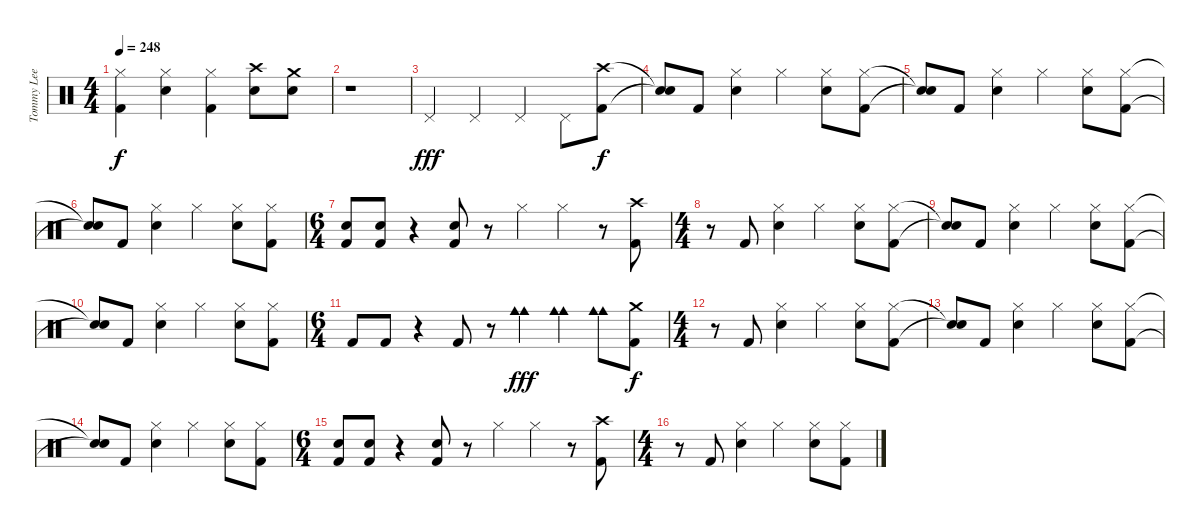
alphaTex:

\track ("Tommy Lee" "Tommy Lee") {instrument percussion}
\staff {score}
\articulation defaults
\ts (4 4)
\tempo 248
\clef neutral
\ks c
("Hi-Hat (closed)" "Kick (hit) 2").4{dy f} ("Hi-Hat (closed)" "Electric Snare (hit)").4 ("Hi-Hat (closed)" "Kick (hit) 2").4 ("Crash high (hit)" "Electric Snare (hit)").8 ("Crash medium (hit)" "Electric Snare (hit)").8 |
r.1 |
"Pedal Hi-Hat (hit)".4{dy fff} "Pedal Hi-Hat (hit)".4 "Pedal Hi-Hat (hit)".4 "Pedal Hi-Hat (hit)".8 ("Crash high (hit)" "Kick (hit) 2").8{dy f} |
("Snare (hit)"{t} "Snare (hit)"{t}).8 "Kick (hit) 2".8 ("Hi-Hat (closed)" "Electric Snare (hit)").4 "Hi-Hat (closed)".4 ("Hi-Hat (closed)" "Electric Snare (hit)").8 ("Hi-Hat (closed)" "Kick (hit) 2").8 |
("Snare (hit)"{t} "Snare (hit)"{t}).8 "Kick (hit) 2".8 ("Hi-Hat (closed)" "Electric Snare (hit)").4 "Hi-Hat (closed)".4 ("Hi-Hat (closed)" "Electric Snare (hit)").8 ("Hi-Hat (closed)" "Kick (hit) 2").8 |
("Snare (hit)"{t} "Snare (hit)"{t}).8 "Kick (hit) 2".8 ("Hi-Hat (closed)" "Electric Snare (hit)").4 "Hi-Hat (closed)".4 ("Hi-Hat (closed)" "Electric Snare (hit)").8 ("Hi-Hat (closed)" "Kick (hit) 2").8 |
\ts (6 4)
("Electric Snare (hit)" "Kick (hit) 2").8 ("Electric Snare (hit)" "Kick (hit) 2").8 r.4 ("Electric Snare (hit)" "Kick (hit) 2").8 r.8 "Hi-Hat (closed)".4 "Hi-Hat (closed)".4 r.8 ("Crash high (hit)" "Kick (hit) 2").8 |
\ts (4 4)
r.8 "Kick (hit) 2".8 ("Hi-Hat (closed)" "Electric Snare (hit)").4 "Hi-Hat (closed)".4 ("Hi-Hat (closed)" "Electric Snare (hit)").8 ("Hi-Hat (closed)" "Kick (hit) 2").8 |
("Snare (hit)"{t} "Snare (hit)"{t}).8 "Kick (hit) 2".8 ("Hi-Hat (closed)" "Electric Snare (hit)").4 "Hi-Hat (closed)".4 ("Hi-Hat (closed)" "Electric Snare (hit)").8 ("Hi-Hat (closed)" "Kick (hit) 2").8 |
("Snare (hit)"{t} "Snare (hit)"{t}).8 "Kick (hit) 2".8 ("Hi-Hat (closed)" "Electric Snare (hit)").4 "Hi-Hat (closed)".4 ("Hi-Hat (closed)" "Electric Snare (hit)").8 ("Hi-Hat (closed)" "Kick (hit) 2").8 |
\ts (6 4)
"Kick (hit) 2".8 "Kick (hit) 2".8 r.4 "Kick (hit) 2".8 r.8 ("Cowbell medium (hit)" "Cowbell medium (hit)").4{dy fff} ("Cowbell medium (hit)" "Cowbell medium (hit)").4 ("Cowbell medium (hit)" "Cowbell medium (hit)").8 ("Crash medium (hit)" "Kick (hit) 2").8{dy f} |
\ts (4 4)
r.8 "Kick (hit) 2".8 ("Hi-Hat (closed)" "Electric Snare (hit)").4 "Hi-Hat (closed)".4 ("Hi-Hat (closed)" "Electric Snare (hit)").8 ("Hi-Hat (closed)" "Kick (hit) 2").8 |
("Snare (hit)"{t} "Snare (hit)"{t}).8 "Kick (hit) 2".8 ("Hi-Hat (closed)" "Electric Snare (hit)").4 "Hi-Hat (closed)".4 ("Hi-Hat (closed)" "Electric Snare (hit)").8 ("Hi-Hat (closed)" "Kick (hit) 2").8 |
("Snare (hit)"{t} "Snare (hit)"{t}).8 "Kick (hit) 2".8 ("Hi-Hat (closed)" "Electric Snare (hit)").4 "Hi-Hat (closed)".4 ("Hi-Hat (closed)" "Electric Snare (hit)").8 ("Hi-Hat (closed)" "Kick (hit) 2").8 |
\ts (6 4)
("Electric Snare (hit)" "Kick (hit) 2").8 ("Electric Snare (hit)" "Kick (hit) 2").8 r.4 ("Electric Snare (hit)" "Kick (hit) 2").8 r.8 "Hi-Hat (closed)".4 "Hi-Hat (closed)".4 r.8 ("Crash high (hit)" "Kick (hit) 2").8 |
\ts (4 4)
r.8 "Kick (hit) 2".8 ("Hi-Hat (closed)" "Electric Snare (hit)").4 "Hi-Hat (closed)".4 ("Hi-Hat (closed)" "Electric Snare (hit)").8 ("Hi-Hat (closed)" "Kick (hit) 2").8
